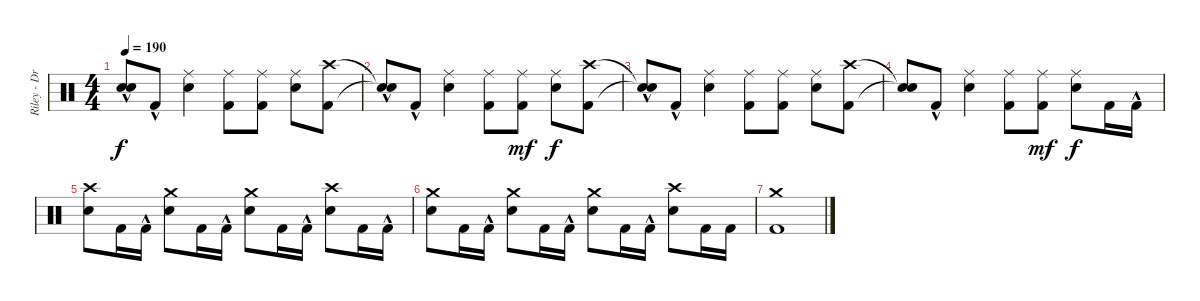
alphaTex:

\track ("Riley - Drums" "Riley - Dr") {instrument percussion}
\staff {score}
\articulation defaults
\ts (4 4)
\tempo 190
\clef neutral
\ks c
("Snare (hit)"{t} "Snare (hit)"{hac t}).8{dy f} "Kick (hit) 2"{hac}.8 ("Electric Snare (hit)" "Ride (middle)").4 ("Kick (hit) 2" "Ride (middle)").8 ("Kick (hit) 2" "Ride (middle)").8 ("Electric Snare (hit)" "Ride (middle)").8 ("Kick (hit) 2" "Crash high (hit)").8 |
("Snare (hit)"{t} "Snare (hit)"{hac t}).8 "Kick (hit) 2"{hac}.8 ("Electric Snare (hit)" "Ride (middle)").4 ("Kick (hit) 2" "Ride (middle)").8 ("Kick (hit) 2" "Ride (middle)").8{dy mf} ("Electric Snare (hit)" "Ride (middle)").8{dy f} ("Kick (hit) 2" "Crash high (hit)").8 |
("Snare (hit)"{t} "Snare (hit)"{hac t}).8 "Kick (hit) 2"{hac}.8 ("Electric Snare (hit)" "Ride (middle)").4 ("Kick (hit) 2" "Ride (middle)").8 ("Kick (hit) 2" "Ride (middle)").8 ("Electric Snare (hit)" "Ride (middle)").8 ("Kick (hit) 2" "Crash high (hit)").8 |
("Snare (hit)"{t} "Snare (hit)"{t}).8 "Kick (hit) 2"{hac}.8 ("Electric Snare (hit)" "Ride (middle)").4 ("Kick (hit) 2" "Ride (middle)").8 ("Kick (hit) 2" "Ride (middle)").8{dy mf} ("Electric Snare (hit)" "Ride (middle)").8{dy f} "Kick (hit) 2".16 "Kick (hit) 2"{hac}.16 |
("Electric Snare (hit)" "Crash high (hit)").8 "Kick (hit) 2".16 "Kick (hit) 2"{hac}.16 ("Electric Snare (hit)" "Crash medium (hit)").8 "Kick (hit) 2".16 "Kick (hit) 2"{hac}.16 ("Electric Snare (hit)" "Crash medium (hit)").8 "Kick (hit) 2".16 "Kick (hit) 2"{hac}.16 ("Electric Snare (hit)" "Crash high (hit)").8 "Kick (hit) 2".16 "Kick (hit) 2"{hac}.16 |
("Electric Snare (hit)" "Crash medium (hit)").8 "Kick (hit) 2".16 "Kick (hit) 2"{hac}.16 ("Electric Snare (hit)" "Crash medium (hit)").8 "Kick (hit) 2".16 "Kick (hit) 2"{hac}.16 ("Electric Snare (hit)" "Crash medium (hit)").8 "Kick (hit) 2".16 "Kick (hit) 2"{hac}.16 ("Electric Snare (hit)" "Crash high (hit)").8 "Kick (hit) 2".16 "Kick (hit) 2".16 |
("Kick (hit) 2" "Crash medium (hit)").1
